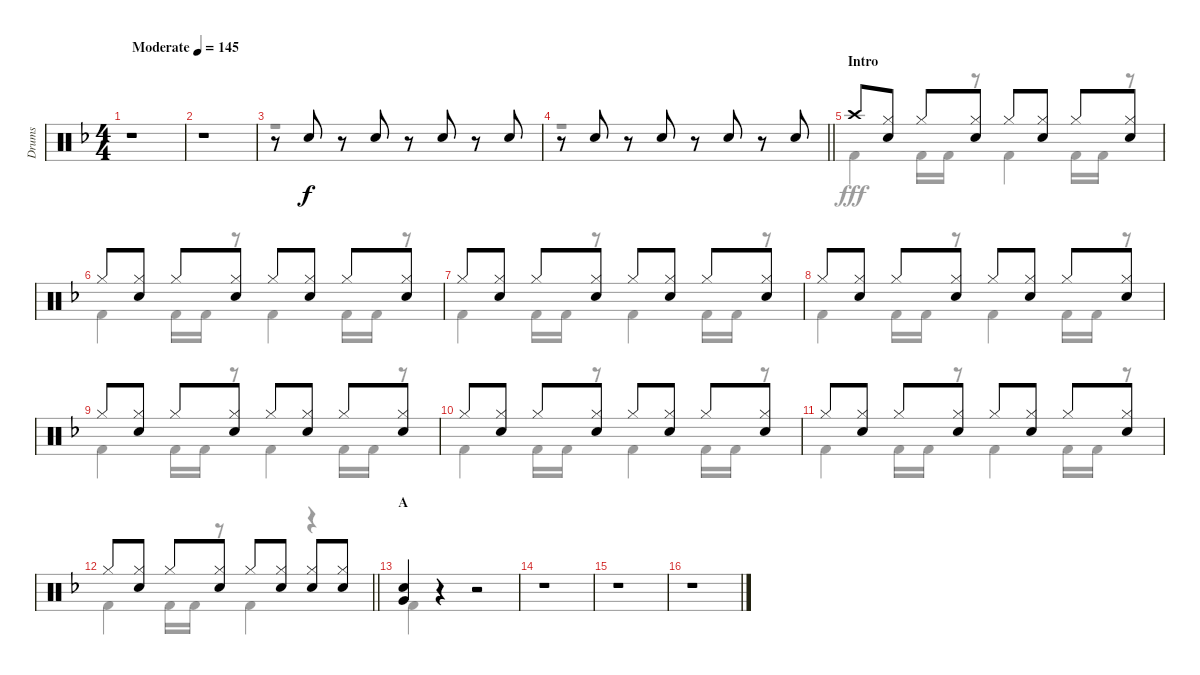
\track ("Drums" "Drums") {instrument percussion}
\staff {score}
\articulation defaults
\voice
\ts (4 4)
\tempo (145 "Moderate")
\clef neutral
\ks f
r.1{dy f} |
r.1 |
r.8 "Snare (hit) 2".8 r.8 "Snare (hit) 2".8 r.8 "Snare (hit) 2".8 r.8 "Snare (hit) 2".8 |
\barLineRight lightlight
r.8 "Snare (hit) 2".8 r.8 "Snare (hit) 2".8 r.8 "Snare (hit) 2".8 r.8 "Snare (hit) 2".8 |
\section ("" "Intro")
"Crash high (hit)".8 ("Hi-Hat (closed)" "Snare (hit) 2").8 "Hi-Hat (closed)".8 ("Hi-Hat (closed)" "Snare (hit) 2").8 "Hi-Hat (closed)".8 ("Hi-Hat (closed)" "Snare (hit) 2").8 "Hi-Hat (closed)".8 ("Hi-Hat (closed)" "Snare (hit) 2").8 |
"Hi-Hat (closed)".8 ("Hi-Hat (closed)" "Snare (hit) 2").8 "Hi-Hat (closed)".8 ("Hi-Hat (closed)" "Snare (hit) 2").8 "Hi-Hat (closed)".8 ("Hi-Hat (closed)" "Snare (hit) 2").8 "Hi-Hat (closed)".8 ("Hi-Hat (closed)" "Snare (hit) 2").8 |
"Hi-Hat (closed)".8 ("Hi-Hat (closed)" "Snare (hit) 2").8 "Hi-Hat (closed)".8 ("Hi-Hat (closed)" "Snare (hit) 2").8 "Hi-Hat (closed)".8 ("Hi-Hat (closed)" "Snare (hit) 2").8 "Hi-Hat (closed)".8 ("Hi-Hat (closed)" "Snare (hit) 2").8 |
"Hi-Hat (closed)".8 ("Hi-Hat (closed)" "Snare (hit) 2").8 "Hi-Hat (closed)".8 ("Hi-Hat (closed)" "Snare (hit) 2").8 "Hi-Hat (closed)".8 ("Hi-Hat (closed)" "Snare (hit) 2").8 "Hi-Hat (closed)".8 ("Hi-Hat (closed)" "Snare (hit) 2").8 |
"Hi-Hat (closed)".8 ("Hi-Hat (closed)" "Snare (hit) 2").8 "Hi-Hat (closed)".8 ("Hi-Hat (closed)" "Snare (hit) 2").8 "Hi-Hat (closed)".8 ("Hi-Hat (closed)" "Snare (hit) 2").8 "Hi-Hat (closed)".8 ("Hi-Hat (closed)" "Snare (hit) 2").8 |
"Hi-Hat (closed)".8 ("Hi-Hat (closed)" "Snare (hit) 2").8 "Hi-Hat (closed)".8 ("Hi-Hat (closed)" "Snare (hit) 2").8 "Hi-Hat (closed)".8 ("Hi-Hat (closed)" "Snare (hit) 2").8 "Hi-Hat (closed)".8 ("Hi-Hat (closed)" "Snare (hit) 2").8 |
"Hi-Hat (closed)".8 ("Hi-Hat (closed)" "Snare (hit) 2").8 "Hi-Hat (closed)".8 ("Hi-Hat (closed)" "Snare (hit) 2").8 "Hi-Hat (closed)".8 ("Hi-Hat (closed)" "Snare (hit) 2").8 "Hi-Hat (closed)".8 ("Hi-Hat (closed)" "Snare (hit) 2").8 |
\barLineRight lightlight "Hi-Hat (closed)".8
("Hi-Hat (closed)" "Snare (hit) 2").8 "Hi-Hat (closed)".8 ("Hi-Hat (closed)" "Snare (hit) 2").8 "Hi-Hat (closed)".8 ("Hi-Hat (closed)" "Snare (hit) 2").8 ("Hi-Hat (closed)" "Snare (hit) 2").8 ("Hi-Hat (closed)" "Snare (hit) 2").8 |
\section ("" "A")
("Snare (hit) 2" "Very Low Tom (hit)").4 r.4 r.2 |
r.1 |
r.1 |
r.1
\voice
\clef neutral
\ottava regular
\simile none
\ks f
r.1{dy fff} |
r.1 |
r.1 |
\barLineRight lightlight
r.1 |
"Kick (hit) 2".4 "Kick (hit) 2".16 "Kick (hit) 2".16 r.8 "Kick (hit) 2".4 "Kick (hit) 2".16 "Kick (hit) 2".16 r.8 |
"Kick (hit) 2".4 "Kick (hit) 2".16 "Kick (hit) 2".16 r.8 "Kick (hit) 2".4 "Kick (hit) 2".16 "Kick (hit) 2".16 r.8 |
"Kick (hit) 2".4 "Kick (hit) 2".16 "Kick (hit) 2".16 r.8 "Kick (hit) 2".4 "Kick (hit) 2".16 "Kick (hit) 2".16 r.8 |
"Kick (hit) 2".4 "Kick (hit) 2".16 "Kick (hit) 2".16 r.8 "Kick (hit) 2".4 "Kick (hit) 2".16 "Kick (hit) 2".16 r.8 |
"Kick (hit) 2".4 "Kick (hit) 2".16 "Kick (hit) 2".16 r.8 "Kick (hit) 2".4 "Kick (hit) 2".16 "Kick (hit) 2".16 r.8 |
"Kick (hit) 2".4 "Kick (hit) 2".16 "Kick (hit) 2".16 r.8 "Kick (hit) 2".4 "Kick (hit) 2".16 "Kick (hit) 2".16 r.8 |
"Kick (hit) 2".4 "Kick (hit) 2".16 "Kick (hit) 2".16 r.8 "Kick (hit) 2".4 "Kick (hit) 2".16 "Kick (hit) 2".16 r.8 |
\barLineRight lightlight "Kick (hit) 2".4 "Kick (hit) 2".16 "Kick (hit) 2".16
r.8 "Kick (hit) 2".4 r.4 |
"Kick (hit) 2".4 r.4 r.2 |
r.1 |
r.1 |
r.1
